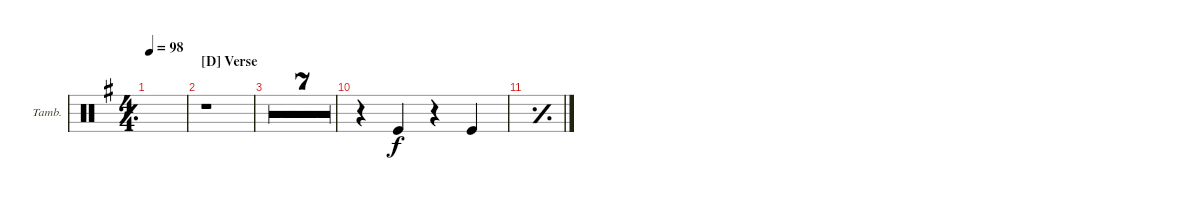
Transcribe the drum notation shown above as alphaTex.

\defaultSystemsLayout 4
\bracketExtendMode groupsimilarinstruments
\firstSystemTrackNameOrientation horizontal
\otherSystemsTrackNameOrientation horizontal
\track ("Tambourine" "Tamb.") {multiBarRest instrument percussion}
\staff {score}
\articulation defaults
\ts (4 4)
\tempo 98
\clef neutral
\simile simple
\ks g
|
\section ("D" "Verse")
r.1 |
r.1 |
r.1 |
r.1 |
r.1 |
r.1 |
r.1 |
r.1 |
r.4 "Kick (hit)".4 r.4 "Kick (hit)".4 |
\simile simple
